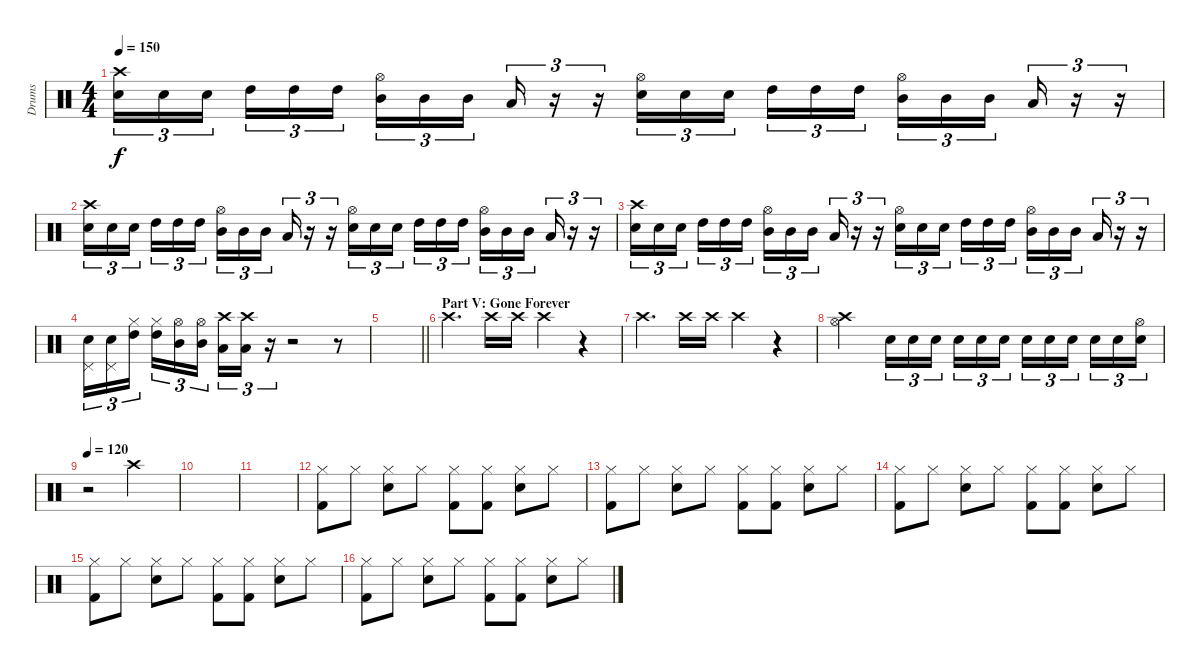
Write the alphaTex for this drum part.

\track ("Drums" "Drums") {instrument percussion}
\staff {score}
\articulation defaults
\ts (4 4)
\tempo 150
\clef neutral
\ks c
("Crash high (hit)" "Snare (hit) 2").16{tu (3 2) dy f} "Snare (hit) 2".16{tu (3 2)} "Snare (hit) 2".16{tu (3 2)} "High Tom (hit)".16{tu (3 2)} "High Tom (hit)".16{tu (3 2)} "High Tom (hit)".16{tu (3 2)} ("Hi-Hat (open)" "Mid Tom (hit)").16{tu (3 2)} "Mid Tom (hit)".16{tu (3 2)} "Mid Tom (hit)".16{tu (3 2)} "Low Tom (hit)".16{tu (3 2)} r.16{tu (3 2)} r.16{tu (3 2)} ("Hi-Hat (open)" "Snare (hit) 2").16{tu (3 2)} "Snare (hit) 2".16{tu (3 2)} "Snare (hit) 2".16{tu (3 2)} "High Tom (hit)".16{tu (3 2)} "High Tom (hit)".16{tu (3 2)} "High Tom (hit)".16{tu (3 2)} ("Hi-Hat (open)" "Mid Tom (hit)").16{tu (3 2)} "Mid Tom (hit)".16{tu (3 2)} "Mid Tom (hit)".16{tu (3 2)} "Low Tom (hit)".16{tu (3 2)} r.16{tu (3 2)} r.16{tu (3 2)} |
("Crash high (hit)" "Snare (hit) 2").16{tu (3 2)} "Snare (hit) 2".16{tu (3 2)} "Snare (hit) 2".16{tu (3 2)} "High Tom (hit)".16{tu (3 2)} "High Tom (hit)".16{tu (3 2)} "High Tom (hit)".16{tu (3 2)} ("Hi-Hat (open)" "Mid Tom (hit)").16{tu (3 2)} "Mid Tom (hit)".16{tu (3 2)} "Mid Tom (hit)".16{tu (3 2)} "Low Tom (hit)".16{tu (3 2)} r.16{tu (3 2)} r.16{tu (3 2)} ("Hi-Hat (open)" "Snare (hit) 2").16{tu (3 2)} "Snare (hit) 2".16{tu (3 2)} "Snare (hit) 2".16{tu (3 2)} "High Tom (hit)".16{tu (3 2)} "High Tom (hit)".16{tu (3 2)} "High Tom (hit)".16{tu (3 2)} ("Hi-Hat (open)" "Mid Tom (hit)").16{tu (3 2)} "Mid Tom (hit)".16{tu (3 2)} "Mid Tom (hit)".16{tu (3 2)} "Low Tom (hit)".16{tu (3 2)} r.16{tu (3 2)} r.16{tu (3 2)} |
("Crash high (hit)" "Snare (hit) 2").16{tu (3 2)} "Snare (hit) 2".16{tu (3 2)} "Snare (hit) 2".16{tu (3 2)} "High Tom (hit)".16{tu (3 2)} "High Tom (hit)".16{tu (3 2)} "High Tom (hit)".16{tu (3 2)} ("Hi-Hat (open)" "Mid Tom (hit)").16{tu (3 2)} "Mid Tom (hit)".16{tu (3 2)} "Mid Tom (hit)".16{tu (3 2)} "Low Tom (hit)".16{tu (3 2)} r.16{tu (3 2)} r.16{tu (3 2)} ("Hi-Hat (open)" "Snare (hit) 2").16{tu (3 2)} "Snare (hit) 2".16{tu (3 2)} "Snare (hit) 2".16{tu (3 2)} "High Tom (hit)".16{tu (3 2)} "High Tom (hit)".16{tu (3 2)} "High Tom (hit)".16{tu (3 2)} ("Hi-Hat (open)" "Mid Tom (hit)").16{tu (3 2)} "Mid Tom (hit)".16{tu (3 2)} "Mid Tom (hit)".16{tu (3 2)} "Low Tom (hit)".16{tu (3 2)} r.16{tu (3 2)} r.16{tu (3 2)} |
("Snare (hit) 2" "Pedal Hi-Hat (hit)").16{tu (3 2)} ("Snare (hit) 2" "Pedal Hi-Hat (hit)").16{tu (3 2)} ("High Tom (hit)" "Hi-Hat (closed)").16{tu (3 2)} ("High Tom (hit)" "Hi-Hat (closed)").16{tu (3 2)} ("Hi-Hat (open)" "Mid Tom (hit)").16{tu (3 2)} ("Hi-Hat (open)" "Mid Tom (hit)").16{tu (3 2)} ("Crash high (hit)" "Low Tom (hit)").16{tu (3 2)} ("Crash high (hit)" "Low Tom (hit)").16{tu (3 2)} r.16{tu (3 2)} r.2 r.8 |
\barLineRight lightlight
|
\section ("" "Part V: Gone Forever")
"Crash high (hit)".4{d} "Crash high (hit)".16 "Crash high (hit)".16 "Crash high (hit)".4 r.4 |
"Crash high (hit)".4{d} "Crash high (hit)".16 "Crash high (hit)".16 "Crash high (hit)".4 r.4 |
("Crash high (hit)" "Hi-Hat (open)").2 "Snare (hit) 2".16{tu (3 2)} "Snare (hit) 2".16{tu (3 2)} "Snare (hit) 2".16{tu (3 2)} "Snare (hit) 2".16{tu (3 2)} "Snare (hit) 2".16{tu (3 2)} "Snare (hit) 2".16{tu (3 2)} "Snare (hit) 2".16{tu (3 2)} "Snare (hit) 2".16{tu (3 2)} "Snare (hit) 2".16{tu (3 2)} "Snare (hit) 2".16{tu (3 2)} "Snare (hit) 2".16{tu (3 2)} ("Hi-Hat (open)" "Snare (hit) 2").16{tu (3 2)} |
\tempo 120
r.2 "Crash high (hit)".2 |
|
|
("Hi-Hat (closed)" "Kick (hit) 2").8 "Hi-Hat (closed)".8 ("Hi-Hat (closed)" "Snare (hit) 2").8 "Hi-Hat (closed)".8 ("Hi-Hat (closed)" "Kick (hit) 2").8 ("Hi-Hat (closed)" "Kick (hit) 2").8 ("Hi-Hat (closed)" "Snare (hit) 2").8 "Hi-Hat (closed)".8 |
("Hi-Hat (closed)" "Kick (hit) 2").8 "Hi-Hat (closed)".8 ("Hi-Hat (closed)" "Snare (hit) 2").8 "Hi-Hat (closed)".8 ("Hi-Hat (closed)" "Kick (hit) 2").8 ("Hi-Hat (closed)" "Kick (hit) 2").8 ("Hi-Hat (closed)" "Snare (hit) 2").8 "Hi-Hat (closed)".8 |
("Hi-Hat (closed)" "Kick (hit) 2").8 "Hi-Hat (closed)".8 ("Hi-Hat (closed)" "Snare (hit) 2").8 "Hi-Hat (closed)".8 ("Hi-Hat (closed)" "Kick (hit) 2").8 ("Hi-Hat (closed)" "Kick (hit) 2").8 ("Hi-Hat (closed)" "Snare (hit) 2").8 "Hi-Hat (closed)".8 |
("Hi-Hat (closed)" "Kick (hit) 2").8 "Hi-Hat (closed)".8 ("Hi-Hat (closed)" "Snare (hit) 2").8 "Hi-Hat (closed)".8 ("Hi-Hat (closed)" "Kick (hit) 2").8 ("Hi-Hat (closed)" "Kick (hit) 2").8 ("Hi-Hat (closed)" "Snare (hit) 2").8 "Hi-Hat (closed)".8 |
("Hi-Hat (closed)" "Kick (hit) 2").8 "Hi-Hat (closed)".8 ("Hi-Hat (closed)" "Snare (hit) 2").8 "Hi-Hat (closed)".8 ("Hi-Hat (closed)" "Kick (hit) 2").8 ("Hi-Hat (closed)" "Kick (hit) 2").8 ("Hi-Hat (closed)" "Snare (hit) 2").8 "Hi-Hat (closed)".8
